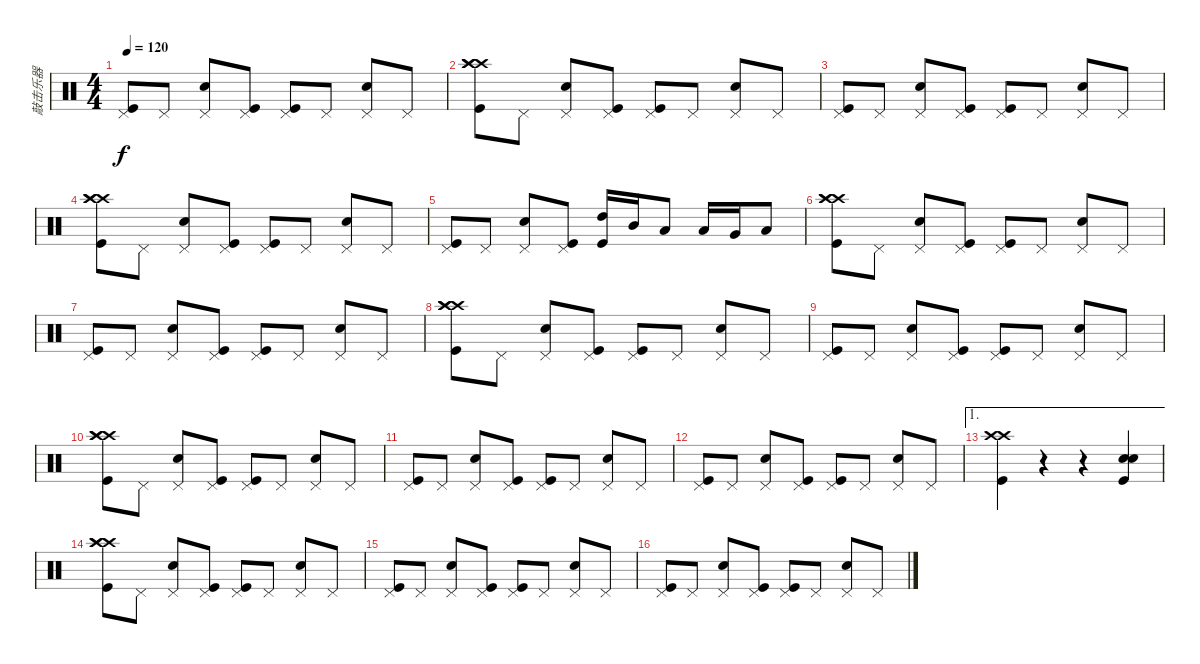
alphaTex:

\track ("敲击乐器" "敲击乐器") {instrument percussion}
\staff {score}
\articulation defaults
\ts (4 4)
\tempo 120
\clef neutral
\ks c
("Pedal Hi-Hat (hit)" "Kick (hit)").8{dy f} "Pedal Hi-Hat (hit)".8 ("Pedal Hi-Hat (hit)" "Metronome (bell)").8 ("Pedal Hi-Hat (hit)" "Kick (hit)").8 ("Pedal Hi-Hat (hit)" "Kick (hit)").8 "Pedal Hi-Hat (hit)".8 ("Pedal Hi-Hat (hit)" "Metronome (bell)").8 "Pedal Hi-Hat (hit)".8 |
("Crash high (hit)" "Crash high (hit)" "Crash high (hit)" "Kick (hit)").8 "Pedal Hi-Hat (hit)".8 ("Pedal Hi-Hat (hit)" "Metronome (bell)").8 ("Pedal Hi-Hat (hit)" "Kick (hit)").8 ("Pedal Hi-Hat (hit)" "Kick (hit)").8 "Pedal Hi-Hat (hit)".8 ("Pedal Hi-Hat (hit)" "Metronome (bell)").8 "Pedal Hi-Hat (hit)".8 |
("Pedal Hi-Hat (hit)" "Kick (hit)").8 "Pedal Hi-Hat (hit)".8 ("Pedal Hi-Hat (hit)" "Metronome (bell)").8 ("Pedal Hi-Hat (hit)" "Kick (hit)").8 ("Pedal Hi-Hat (hit)" "Kick (hit)").8 "Pedal Hi-Hat (hit)".8 ("Pedal Hi-Hat (hit)" "Metronome (bell)").8 "Pedal Hi-Hat (hit)".8 |
("Crash high (hit)" "Crash high (hit)" "Crash high (hit)" "Kick (hit)").8 "Pedal Hi-Hat (hit)".8 ("Pedal Hi-Hat (hit)" "Metronome (bell)").8 ("Pedal Hi-Hat (hit)" "Kick (hit)").8 ("Pedal Hi-Hat (hit)" "Kick (hit)").8 "Pedal Hi-Hat (hit)".8 ("Pedal Hi-Hat (hit)" "Metronome (bell)").8 "Pedal Hi-Hat (hit)".8 |
("Pedal Hi-Hat (hit)" "Kick (hit)").8 "Pedal Hi-Hat (hit)".8 ("Pedal Hi-Hat (hit)" "Metronome (bell)").8 ("Pedal Hi-Hat (hit)" "Kick (hit)").8 ("High Tom (hit)" "Kick (hit)").16 "Mid Tom (hit)".16 "Low Tom (hit)".8 "Low Tom (hit)".16 "Very Low Tom (hit)".16 "Low Floor Tom (hit)".8 |
("Crash high (hit)" "Crash high (hit)" "Crash high (hit)" "Kick (hit)").8 "Pedal Hi-Hat (hit)".8 ("Pedal Hi-Hat (hit)" "Metronome (bell)").8 ("Pedal Hi-Hat (hit)" "Kick (hit)").8 ("Pedal Hi-Hat (hit)" "Kick (hit)").8 "Pedal Hi-Hat (hit)".8 ("Pedal Hi-Hat (hit)" "Metronome (bell)").8 "Pedal Hi-Hat (hit)".8 |
("Pedal Hi-Hat (hit)" "Kick (hit)").8 "Pedal Hi-Hat (hit)".8 ("Pedal Hi-Hat (hit)" "Metronome (bell)").8 ("Pedal Hi-Hat (hit)" "Kick (hit)").8 ("Pedal Hi-Hat (hit)" "Kick (hit)").8 "Pedal Hi-Hat (hit)".8 ("Pedal Hi-Hat (hit)" "Metronome (bell)").8 "Pedal Hi-Hat (hit)".8 |
("Crash high (hit)" "Crash high (hit)" "Crash high (hit)" "Kick (hit)").8 "Pedal Hi-Hat (hit)".8 ("Pedal Hi-Hat (hit)" "Metronome (bell)").8 ("Pedal Hi-Hat (hit)" "Kick (hit)").8 ("Pedal Hi-Hat (hit)" "Kick (hit)").8 "Pedal Hi-Hat (hit)".8 ("Pedal Hi-Hat (hit)" "Metronome (bell)").8 "Pedal Hi-Hat (hit)".8 |
("Pedal Hi-Hat (hit)" "Kick (hit)").8 "Pedal Hi-Hat (hit)".8 ("Pedal Hi-Hat (hit)" "Metronome (bell)").8 ("Pedal Hi-Hat (hit)" "Kick (hit)").8 ("Pedal Hi-Hat (hit)" "Kick (hit)").8 "Pedal Hi-Hat (hit)".8 ("Pedal Hi-Hat (hit)" "Metronome (bell)").8 "Pedal Hi-Hat (hit)".8 |
("Crash high (hit)" "Crash high (hit)" "Crash high (hit)" "Kick (hit)").8 "Pedal Hi-Hat (hit)".8 ("Pedal Hi-Hat (hit)" "Metronome (bell)").8 ("Pedal Hi-Hat (hit)" "Kick (hit)").8 ("Pedal Hi-Hat (hit)" "Kick (hit)").8 "Pedal Hi-Hat (hit)".8 ("Pedal Hi-Hat (hit)" "Metronome (bell)").8 "Pedal Hi-Hat (hit)".8 |
("Pedal Hi-Hat (hit)" "Kick (hit)").8 "Pedal Hi-Hat (hit)".8 ("Pedal Hi-Hat (hit)" "Metronome (bell)").8 ("Pedal Hi-Hat (hit)" "Kick (hit)").8 ("Pedal Hi-Hat (hit)" "Kick (hit)").8 "Pedal Hi-Hat (hit)".8 ("Pedal Hi-Hat (hit)" "Metronome (bell)").8 "Pedal Hi-Hat (hit)".8 |
("Pedal Hi-Hat (hit)" "Kick (hit)").8 "Pedal Hi-Hat (hit)".8 ("Pedal Hi-Hat (hit)" "Metronome (bell)").8 ("Pedal Hi-Hat (hit)" "Kick (hit)").8 ("Pedal Hi-Hat (hit)" "Kick (hit)").8 "Pedal Hi-Hat (hit)".8 ("Pedal Hi-Hat (hit)" "Metronome (bell)").8 "Pedal Hi-Hat (hit)".8 |
\ae 1
("Crash high (hit)" "Crash high (hit)" "Kick (hit)").4 r.4 r.4 ("Metronome (bell)" "Metronome (bell)" "Kick (hit)").4 |
("Crash high (hit)" "Crash high (hit)" "Crash high (hit)" "Kick (hit)").8 "Pedal Hi-Hat (hit)".8 ("Pedal Hi-Hat (hit)" "Metronome (bell)").8 ("Pedal Hi-Hat (hit)" "Kick (hit)").8 ("Pedal Hi-Hat (hit)" "Kick (hit)").8 "Pedal Hi-Hat (hit)".8 ("Pedal Hi-Hat (hit)" "Metronome (bell)").8 "Pedal Hi-Hat (hit)".8 |
("Pedal Hi-Hat (hit)" "Kick (hit)").8 "Pedal Hi-Hat (hit)".8 ("Pedal Hi-Hat (hit)" "Metronome (bell)").8 ("Pedal Hi-Hat (hit)" "Kick (hit)").8 ("Pedal Hi-Hat (hit)" "Kick (hit)").8 "Pedal Hi-Hat (hit)".8 ("Pedal Hi-Hat (hit)" "Metronome (bell)").8 "Pedal Hi-Hat (hit)".8 |
("Pedal Hi-Hat (hit)" "Kick (hit)").8 "Pedal Hi-Hat (hit)".8 ("Pedal Hi-Hat (hit)" "Metronome (bell)").8 ("Pedal Hi-Hat (hit)" "Kick (hit)").8 ("Pedal Hi-Hat (hit)" "Kick (hit)").8 "Pedal Hi-Hat (hit)".8 ("Pedal Hi-Hat (hit)" "Metronome (bell)").8 "Pedal Hi-Hat (hit)".8
